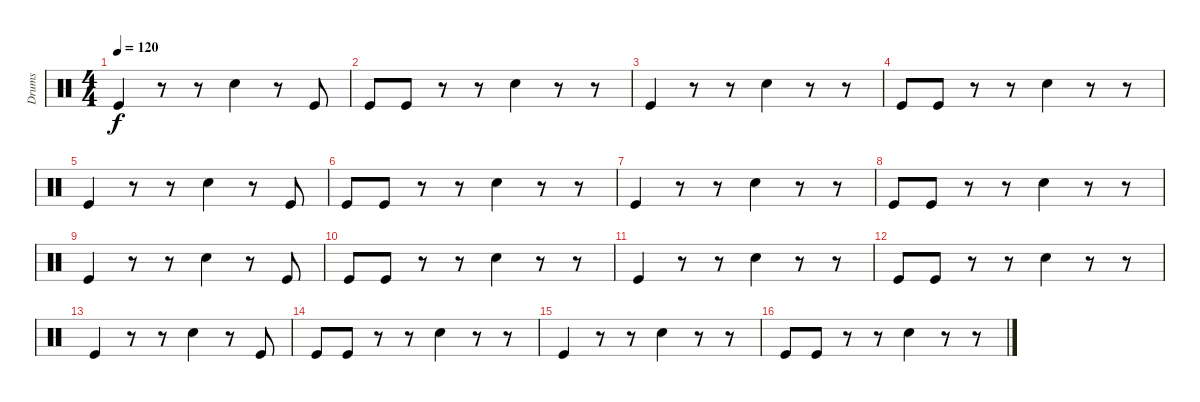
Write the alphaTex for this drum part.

\track ("Drums" "Drums") {instrument percussion}
\staff {score}
\articulation defaults
\ts (4 4)
\tempo 120
\clef neutral
\ks c "Kick (hit)".4{dy f}
r.8 r.8 "Snare (hit) 2".4 r.8 "Kick (hit)".8 |
"Kick (hit)".8 "Kick (hit)".8 r.8 r.8 "Snare (hit) 2".4 r.8 r.8 |
"Kick (hit)".4 r.8 r.8 "Snare (hit) 2".4 r.8 r.8 |
"Kick (hit)".8 "Kick (hit)".8 r.8 r.8 "Snare (hit) 2".4 r.8 r.8 |
"Kick (hit)".4 r.8 r.8 "Snare (hit) 2".4 r.8 "Kick (hit)".8 |
"Kick (hit)".8 "Kick (hit)".8 r.8 r.8 "Snare (hit) 2".4 r.8 r.8 |
"Kick (hit)".4 r.8 r.8 "Snare (hit) 2".4 r.8 r.8 |
"Kick (hit)".8 "Kick (hit)".8 r.8 r.8 "Snare (hit) 2".4 r.8 r.8 |
"Kick (hit)".4 r.8 r.8 "Snare (hit) 2".4 r.8 "Kick (hit)".8 |
"Kick (hit)".8 "Kick (hit)".8 r.8 r.8 "Snare (hit) 2".4 r.8 r.8 |
"Kick (hit)".4 r.8 r.8 "Snare (hit) 2".4 r.8 r.8 |
"Kick (hit)".8 "Kick (hit)".8 r.8 r.8 "Snare (hit) 2".4 r.8 r.8 |
"Kick (hit)".4 r.8 r.8 "Snare (hit) 2".4 r.8 "Kick (hit)".8 |
"Kick (hit)".8 "Kick (hit)".8 r.8 r.8 "Snare (hit) 2".4 r.8 r.8 |
"Kick (hit)".4 r.8 r.8 "Snare (hit) 2".4 r.8 r.8 |
"Kick (hit)".8 "Kick (hit)".8 r.8 r.8 "Snare (hit) 2".4 r.8 r.8
